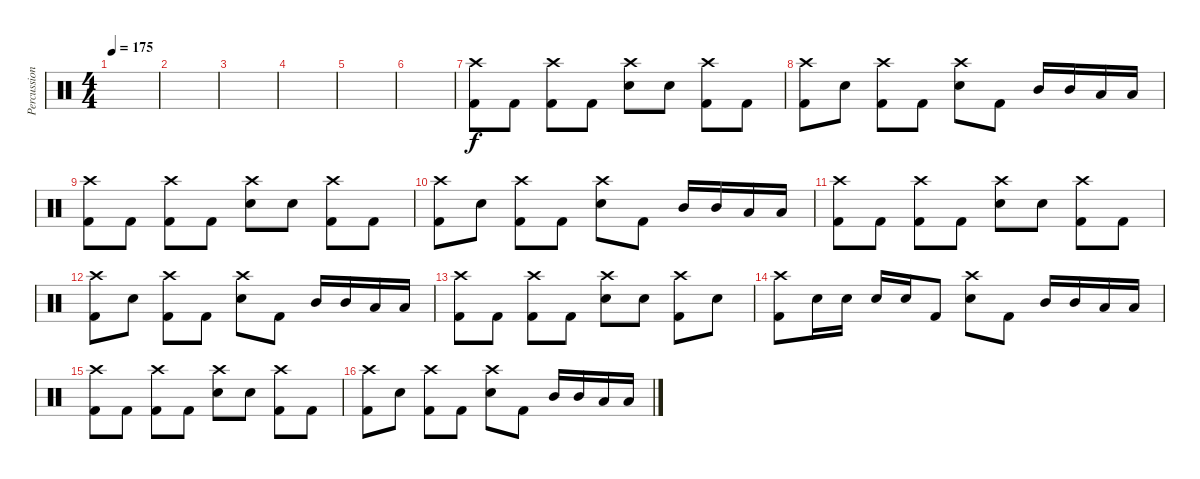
\track ("Percussion" "Percussion") {instrument percussion}
\staff {score}
\articulation defaults
\ts (4 4)
\tempo 175
\clef neutral
\ks c
|
|
|
|
|
|
("Kick (hit) 2" "Crash high (hit)").8 "Kick (hit) 2".8 ("Kick (hit) 2" "Crash high (hit)").8 "Kick (hit) 2".8 ("Electric Snare (hit)" "Crash high (hit)").8 "Electric Snare (hit)".8 ("Kick (hit) 2" "Crash high (hit)").8 "Kick (hit) 2".8 |
("Kick (hit) 2" "Crash high (hit)").8 "Electric Snare (hit)".8 ("Kick (hit) 2" "Crash high (hit)").8 "Kick (hit) 2".8 ("Electric Snare (hit)" "Crash high (hit)").8 "Kick (hit) 2".8 "Mid Tom (hit)".16 "Mid Tom (hit)".16 "Low Tom (hit)".16 "Low Tom (hit)".16 |
("Kick (hit) 2" "Crash high (hit)").8 "Kick (hit) 2".8 ("Kick (hit) 2" "Crash high (hit)").8 "Kick (hit) 2".8 ("Electric Snare (hit)" "Crash high (hit)").8 "Electric Snare (hit)".8 ("Kick (hit) 2" "Crash high (hit)").8 "Kick (hit) 2".8 |
("Kick (hit) 2" "Crash high (hit)").8 "Electric Snare (hit)".8 ("Kick (hit) 2" "Crash high (hit)").8 "Kick (hit) 2".8 ("Electric Snare (hit)" "Crash high (hit)").8 "Kick (hit) 2".8 "Mid Tom (hit)".16 "Mid Tom (hit)".16 "Low Tom (hit)".16 "Low Tom (hit)".16 |
("Kick (hit) 2" "Crash high (hit)").8 "Kick (hit) 2".8 ("Kick (hit) 2" "Crash high (hit)").8 "Kick (hit) 2".8 ("Electric Snare (hit)" "Crash high (hit)").8 "Electric Snare (hit)".8 ("Kick (hit) 2" "Crash high (hit)").8 "Kick (hit) 2".8 |
("Kick (hit) 2" "Crash high (hit)").8 "Electric Snare (hit)".8 ("Kick (hit) 2" "Crash high (hit)").8 "Kick (hit) 2".8 ("Electric Snare (hit)" "Crash high (hit)").8 "Kick (hit) 2".8 "Mid Tom (hit)".16 "Mid Tom (hit)".16 "Low Tom (hit)".16 "Low Tom (hit)".16 |
("Kick (hit) 2" "Crash high (hit)").8 "Kick (hit) 2".8 ("Kick (hit) 2" "Crash high (hit)").8 "Kick (hit) 2".8 ("Electric Snare (hit)" "Crash high (hit)").8 "Electric Snare (hit)".8 ("Kick (hit) 2" "Crash high (hit)").8 "Electric Snare (hit)".8 |
("Kick (hit) 2" "Crash high (hit)").8 "Electric Snare (hit)".16 "Electric Snare (hit)".16 "Electric Snare (hit)".16 "Electric Snare (hit)".16 "Kick (hit) 2".8 ("Electric Snare (hit)" "Crash high (hit)").8 "Kick (hit) 2".8 "Mid Tom (hit)".16 "Mid Tom (hit)".16 "Low Tom (hit)".16 "Low Tom (hit)".16 |
("Kick (hit) 2" "Crash high (hit)").8 "Kick (hit) 2".8 ("Kick (hit) 2" "Crash high (hit)").8 "Kick (hit) 2".8 ("Electric Snare (hit)" "Crash high (hit)").8 "Electric Snare (hit)".8 ("Kick (hit) 2" "Crash high (hit)").8 "Kick (hit) 2".8 |
("Kick (hit) 2" "Crash high (hit)").8 "Electric Snare (hit)".8 ("Kick (hit) 2" "Crash high (hit)").8 "Kick (hit) 2".8 ("Electric Snare (hit)" "Crash high (hit)").8 "Kick (hit) 2".8 "Mid Tom (hit)".16 "Mid Tom (hit)".16 "Low Tom (hit)".16 "Low Tom (hit)".16
